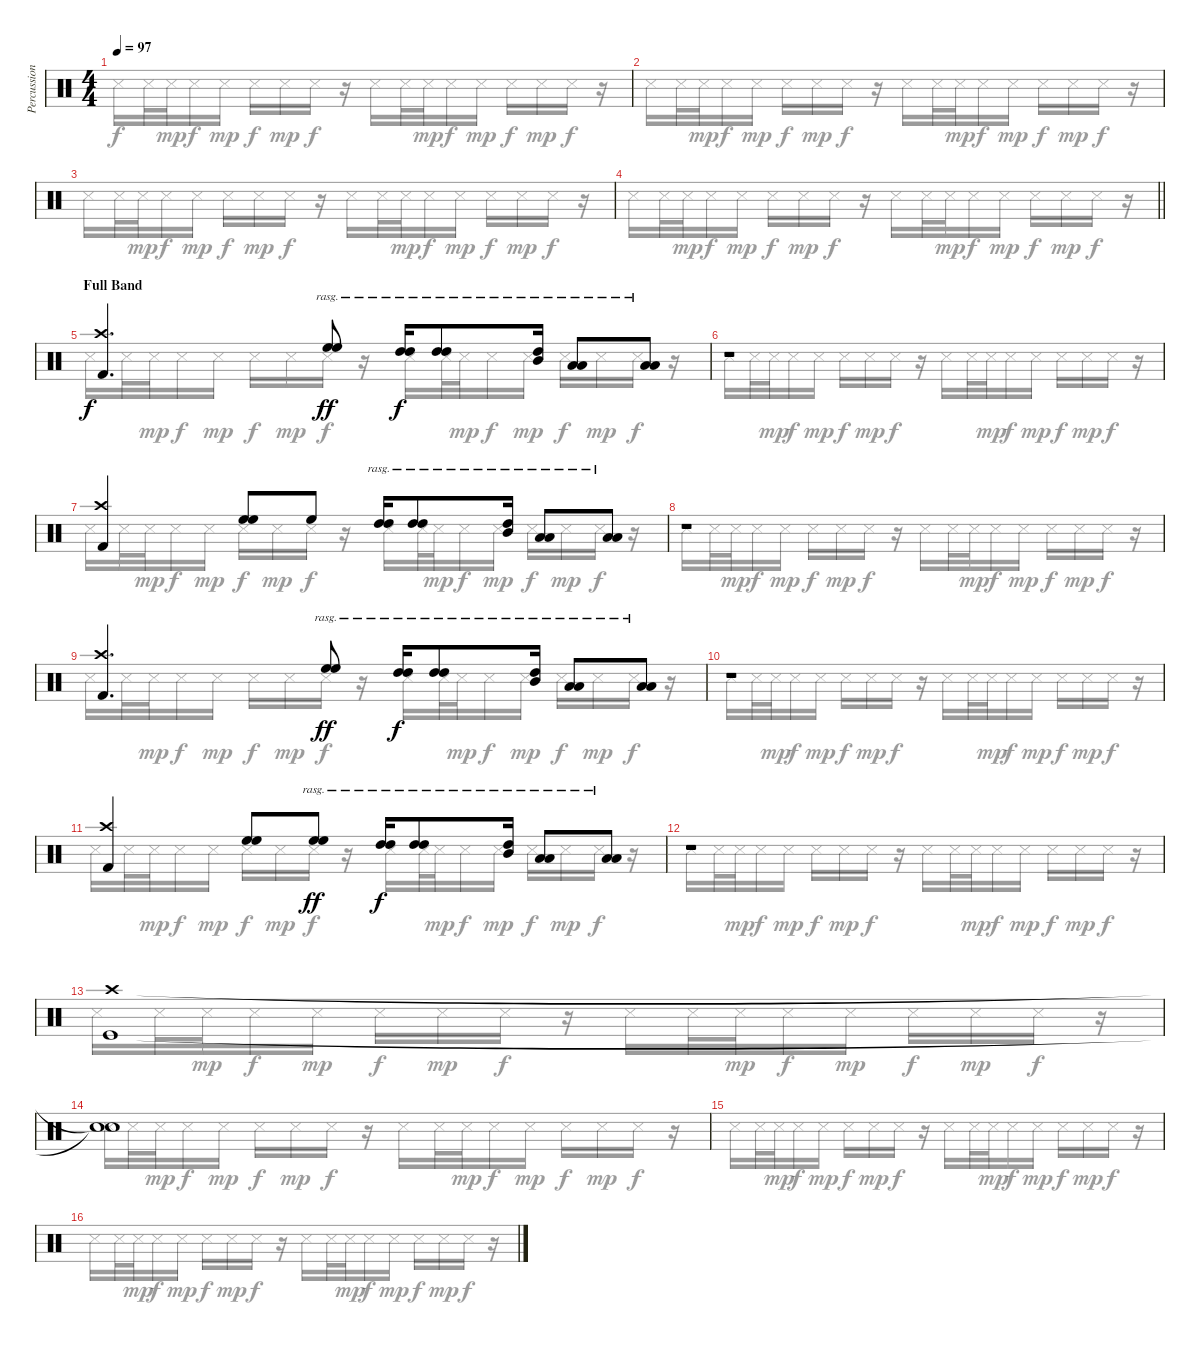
\track ("Percussion" "Percussion") {instrument percussion}
\staff {score}
\articulation defaults
\voice
\ts (4 4)
\tempo 97
\clef neutral
\ks c
|
|
|
\barLineRight lightlight
|
\section ("" "Full Band")
("Crash high (hit)" "Kick (hit) 2").4{d} ("High Floor Tom (hit)" "High Floor Tom (hit)").8{bd 480 rasg ii dy ff} ("High Tom (hit)" "High Tom (hit)").16{bd 240 rasg ii dy f} ("High Tom (hit)" "High Tom (hit)").8{bd 120 rasg ii} ("High Tom (hit)" "Mid Tom (hit)").16{bd 120 rasg ii} ("Low Floor Tom (hit)" "Low Tom (hit)").8{bd 120 rasg ii} ("Low Floor Tom (hit)" "Low Tom (hit)").8{bd 120 rasg ii} |
r.1 |
("Crash high (hit)" "Kick (hit) 2").4 ("High Floor Tom (hit)" "High Floor Tom (hit)").8{bd 60} "High Floor Tom (hit)".8 ("High Tom (hit)" "High Tom (hit)").16{bd 240 rasg ii} ("High Tom (hit)" "High Tom (hit)").8{bd 120 rasg ii} ("High Tom (hit)" "Mid Tom (hit)").16{bd 120 rasg ii} ("Low Floor Tom (hit)" "Low Tom (hit)").8{bd 120 rasg ii} ("Low Floor Tom (hit)" "Low Tom (hit)").8{bd 120 rasg ii} |
r.1 |
("Crash high (hit)" "Kick (hit) 2").4{d} ("High Floor Tom (hit)" "High Floor Tom (hit)").8{bd 480 rasg ii dy ff} ("High Tom (hit)" "High Tom (hit)").16{bd 240 rasg ii dy f} ("High Tom (hit)" "High Tom (hit)").8{bd 120 rasg ii} ("High Tom (hit)" "Mid Tom (hit)").16{bd 120 rasg ii} ("Low Floor Tom (hit)" "Low Tom (hit)").8{bd 120 rasg ii} ("Low Floor Tom (hit)" "Low Tom (hit)").8{bd 120 rasg ii} |
r.1 |
("Crash high (hit)" "Kick (hit) 2").4 ("High Floor Tom (hit)" "High Floor Tom (hit)").8{bd 60} ("High Floor Tom (hit)" "High Floor Tom (hit)").8{bd 480 rasg ii dy ff} ("High Tom (hit)" "High Tom (hit)").16{bd 240 rasg ii dy f} ("High Tom (hit)" "High Tom (hit)").8{bd 120 rasg ii} ("High Tom (hit)" "Mid Tom (hit)").16{bd 120 rasg ii} ("Low Floor Tom (hit)" "Low Tom (hit)").8{bd 120 rasg ii} ("Low Floor Tom (hit)" "Low Tom (hit)").8{bd 120 rasg ii} |
r.1 |
("Crash high (hit)" "Kick (hit)").1 |
("Snare (hit)"{t} "Snare (hit)"{t}).1 |
|
\voice
\clef neutral
\ottava regular
\simile none
\ks c "Snare (side stick) 3".16{dy f} "Snare (side stick) 3".32 "Metronome (hit)".32{dy mp} "Snare (side stick) 3".16{dy f} "Snare (side stick) 3".16{dy mp} "Metronome (hit)".16{dy f} "Snare (side stick) 3".16{dy mp} "Metronome (hit)".16{dy f}
r.16 "Snare (side stick) 3".16 "Snare (side stick) 3".32 "Metronome (hit)".32{dy mp} "Snare (side stick) 3".16{dy f} "Snare (side stick) 3".16{dy mp} "Metronome (hit)".16{dy f} "Snare (side stick) 3".16{dy mp} "Metronome (hit)".16{dy f} r.16 |
"Snare (side stick) 3".16 "Snare (side stick) 3".32 "Metronome (hit)".32{dy mp} "Snare (side stick) 3".16{dy f} "Snare (side stick) 3".16{dy mp} "Metronome (hit)".16{dy f} "Snare (side stick) 3".16{dy mp} "Metronome (hit)".16{dy f} r.16 "Snare (side stick) 3".16 "Snare (side stick) 3".32 "Metronome (hit)".32{dy mp} "Snare (side stick) 3".16{dy f} "Snare (side stick) 3".16{dy mp} "Metronome (hit)".16{dy f} "Snare (side stick) 3".16{dy mp} "Metronome (hit)".16{dy f} r.16 |
"Snare (side stick) 3".16 "Snare (side stick) 3".32 "Metronome (hit)".32{dy mp} "Snare (side stick) 3".16{dy f} "Snare (side stick) 3".16{dy mp} "Metronome (hit)".16{dy f} "Snare (side stick) 3".16{dy mp} "Metronome (hit)".16{dy f} r.16 "Snare (side stick) 3".16 "Snare (side stick) 3".32 "Metronome (hit)".32{dy mp} "Snare (side stick) 3".16{dy f} "Snare (side stick) 3".16{dy mp} "Metronome (hit)".16{dy f} "Snare (side stick) 3".16{dy mp} "Metronome (hit)".16{dy f} r.16 |
\barLineRight lightlight "Snare (side stick) 3".16 "Snare (side stick) 3".32 "Metronome (hit)".32{dy mp} "Snare (side stick) 3".16{dy f} "Snare (side stick) 3".16{dy mp} "Metronome (hit)".16{dy f} "Snare (side stick) 3".16{dy mp} "Metronome (hit)".16{dy f}
r.16 "Snare (side stick) 3".16 "Snare (side stick) 3".32 "Metronome (hit)".32{dy mp} "Snare (side stick) 3".16{dy f} "Snare (side stick) 3".16{dy mp} "Metronome (hit)".16{dy f} "Snare (side stick) 3".16{dy mp} "Metronome (hit)".16{dy f} r.16 |
"Snare (side stick) 3".16 "Snare (side stick) 3".32 "Metronome (hit)".32{dy mp} "Snare (side stick) 3".16{dy f} "Snare (side stick) 3".16{dy mp} "Metronome (hit)".16{dy f} "Snare (side stick) 3".16{dy mp} "Metronome (hit)".16{dy f} r.16 "Snare (side stick) 3".16 "Snare (side stick) 3".32 "Metronome (hit)".32{dy mp} "Snare (side stick) 3".16{dy f} "Snare (side stick) 3".16{dy mp} "Metronome (hit)".16{dy f} "Snare (side stick) 3".16{dy mp} "Metronome (hit)".16{dy f} r.16 |
"Snare (side stick) 3".16 "Snare (side stick) 3".32 "Metronome (hit)".32{dy mp} "Snare (side stick) 3".16{dy f} "Snare (side stick) 3".16{dy mp} "Metronome (hit)".16{dy f} "Snare (side stick) 3".16{dy mp} "Metronome (hit)".16{dy f} r.16 "Snare (side stick) 3".16 "Snare (side stick) 3".32 "Metronome (hit)".32{dy mp} "Snare (side stick) 3".16{dy f} "Snare (side stick) 3".16{dy mp} "Metronome (hit)".16{dy f} "Snare (side stick) 3".16{dy mp} "Metronome (hit)".16{dy f} r.16 |
"Snare (side stick) 3".16 "Snare (side stick) 3".32 "Metronome (hit)".32{dy mp} "Snare (side stick) 3".16{dy f} "Snare (side stick) 3".16{dy mp} "Metronome (hit)".16{dy f} "Snare (side stick) 3".16{dy mp} "Metronome (hit)".16{dy f} r.16 "Snare (side stick) 3".16 "Snare (side stick) 3".32 "Metronome (hit)".32{dy mp} "Snare (side stick) 3".16{dy f} "Snare (side stick) 3".16{dy mp} "Metronome (hit)".16{dy f} "Snare (side stick) 3".16{dy mp} "Metronome (hit)".16{dy f} r.16 |
"Snare (side stick) 3".16 "Snare (side stick) 3".32 "Metronome (hit)".32{dy mp} "Snare (side stick) 3".16{dy f} "Snare (side stick) 3".16{dy mp} "Metronome (hit)".16{dy f} "Snare (side stick) 3".16{dy mp} "Metronome (hit)".16{dy f} r.16 "Snare (side stick) 3".16 "Snare (side stick) 3".32 "Metronome (hit)".32{dy mp} "Snare (side stick) 3".16{dy f} "Snare (side stick) 3".16{dy mp} "Metronome (hit)".16{dy f} "Snare (side stick) 3".16{dy mp} "Metronome (hit)".16{dy f} r.16 |
"Snare (side stick) 3".16 "Snare (side stick) 3".32 "Metronome (hit)".32{dy mp} "Snare (side stick) 3".16{dy f} "Snare (side stick) 3".16{dy mp} "Metronome (hit)".16{dy f} "Snare (side stick) 3".16{dy mp} "Metronome (hit)".16{dy f} r.16 "Snare (side stick) 3".16 "Snare (side stick) 3".32 "Metronome (hit)".32{dy mp} "Snare (side stick) 3".16{dy f} "Snare (side stick) 3".16{dy mp} "Metronome (hit)".16{dy f} "Snare (side stick) 3".16{dy mp} "Metronome (hit)".16{dy f} r.16 |
"Snare (side stick) 3".16 "Snare (side stick) 3".32 "Metronome (hit)".32{dy mp} "Snare (side stick) 3".16{dy f} "Snare (side stick) 3".16{dy mp} "Metronome (hit)".16{dy f} "Snare (side stick) 3".16{dy mp} "Metronome (hit)".16{dy f} r.16 "Snare (side stick) 3".16 "Snare (side stick) 3".32 "Metronome (hit)".32{dy mp} "Snare (side stick) 3".16{dy f} "Snare (side stick) 3".16{dy mp} "Metronome (hit)".16{dy f} "Snare (side stick) 3".16{dy mp} "Metronome (hit)".16{dy f} r.16 |
"Snare (side stick) 3".16 "Snare (side stick) 3".32 "Metronome (hit)".32{dy mp} "Snare (side stick) 3".16{dy f} "Snare (side stick) 3".16{dy mp} "Metronome (hit)".16{dy f} "Snare (side stick) 3".16{dy mp} "Metronome (hit)".16{dy f} r.16 "Snare (side stick) 3".16 "Snare (side stick) 3".32 "Metronome (hit)".32{dy mp} "Snare (side stick) 3".16{dy f} "Snare (side stick) 3".16{dy mp} "Metronome (hit)".16{dy f} "Snare (side stick) 3".16{dy mp} "Metronome (hit)".16{dy f} r.16 |
"Snare (side stick) 3".16 "Snare (side stick) 3".32 "Metronome (hit)".32{dy mp} "Snare (side stick) 3".16{dy f} "Snare (side stick) 3".16{dy mp} "Metronome (hit)".16{dy f} "Snare (side stick) 3".16{dy mp} "Metronome (hit)".16{dy f} r.16 "Snare (side stick) 3".16 "Snare (side stick) 3".32 "Metronome (hit)".32{dy mp} "Snare (side stick) 3".16{dy f} "Snare (side stick) 3".16{dy mp} "Metronome (hit)".16{dy f} "Snare (side stick) 3".16{dy mp} "Metronome (hit)".16{dy f} r.16 |
"Snare (side stick) 3".16 "Snare (side stick) 3".32 "Metronome (hit)".32{dy mp} "Snare (side stick) 3".16{dy f} "Snare (side stick) 3".16{dy mp} "Metronome (hit)".16{dy f} "Snare (side stick) 3".16{dy mp} "Metronome (hit)".16{dy f} r.16 "Snare (side stick) 3".16 "Snare (side stick) 3".32 "Metronome (hit)".32{dy mp} "Snare (side stick) 3".16{dy f} "Snare (side stick) 3".16{dy mp} "Metronome (hit)".16{dy f} "Snare (side stick) 3".16{dy mp} "Metronome (hit)".16{dy f} r.16 |
"Snare (side stick) 3".16 "Snare (side stick) 3".32 "Metronome (hit)".32{dy mp} "Snare (side stick) 3".16{dy f} "Snare (side stick) 3".16{dy mp} "Metronome (hit)".16{dy f} "Snare (side stick) 3".16{dy mp} "Metronome (hit)".16{dy f} r.16 "Snare (side stick) 3".16 "Snare (side stick) 3".32 "Metronome (hit)".32{dy mp} "Snare (side stick) 3".16{dy f} "Snare (side stick) 3".16{dy mp} "Metronome (hit)".16{dy f} "Snare (side stick) 3".16{dy mp} "Metronome (hit)".16{dy f} r.16 |
"Snare (side stick) 3".16 "Snare (side stick) 3".32 "Metronome (hit)".32{dy mp} "Snare (side stick) 3".16{dy f} "Snare (side stick) 3".16{dy mp} "Metronome (hit)".16{dy f} "Snare (side stick) 3".16{dy mp} "Metronome (hit)".16{dy f} r.16 "Snare (side stick) 3".16 "Snare (side stick) 3".32 "Metronome (hit)".32{dy mp} "Snare (side stick) 3".16{dy f} "Snare (side stick) 3".16{dy mp} "Metronome (hit)".16{dy f} "Snare (side stick) 3".16{dy mp} "Metronome (hit)".16{dy f} r.16 |
"Snare (side stick) 3".16 "Snare (side stick) 3".32 "Metronome (hit)".32{dy mp} "Snare (side stick) 3".16{dy f} "Snare (side stick) 3".16{dy mp} "Metronome (hit)".16{dy f} "Snare (side stick) 3".16{dy mp} "Metronome (hit)".16{dy f} r.16 "Snare (side stick) 3".16 "Snare (side stick) 3".32 "Metronome (hit)".32{dy mp} "Snare (side stick) 3".16{dy f} "Snare (side stick) 3".16{dy mp} "Metronome (hit)".16{dy f} "Snare (side stick) 3".16{dy mp} "Metronome (hit)".16{dy f} r.16
